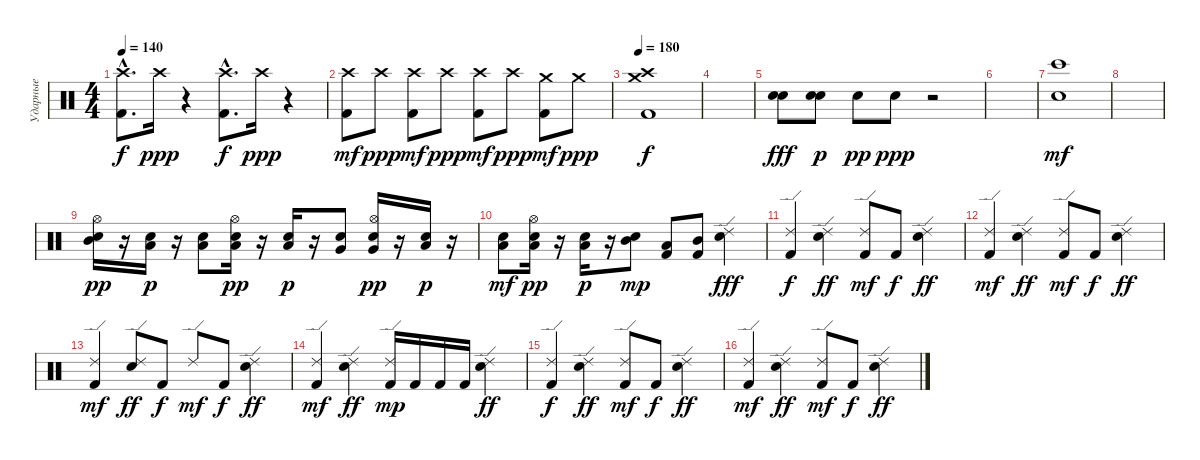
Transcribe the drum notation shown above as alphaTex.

\track ("Ударные" "Ударные") {instrument percussion}
\staff {score}
\articulation defaults
\ts (4 4)
\tempo 140
\clef neutral
\ks c
("Crash high (hit)"{hac} "Kick (hit) 2"{hac}).8{d dy f volume 10} "Crash high (hit)".16{dy ppp volume 0} r.4 ("Crash high (hit)"{hac} "Kick (hit) 2"{hac}).8{d dy f volume 10} "Crash high (hit)".16{dy ppp volume 10} r.4 |
("Crash high (hit)" "Kick (hit) 2").8{dy mf volume 10} "Crash high (hit)".8{dy ppp volume 0} ("Crash high (hit)" "Kick (hit) 2").8{dy mf volume 10} "Crash high (hit)".8{dy ppp volume 0} ("Crash high (hit)" "Kick (hit) 2").8{dy mf volume 10} "Crash high (hit)".8{dy ppp volume 10} ("Crash medium (hit)" "Kick (hit) 2").8{dy mf volume 10} "Crash medium (hit)".8{dy ppp volume 0} |
\tempo 180
("Crash medium (hit)" "Kick (hit) 2" "Crash high (hit)").1{dy f volume 10} |
|
("Electric Snare (hit)" "Snare (hit) 2").8{dy fff} ("Electric Snare (hit)" "Snare (hit) 2").8{dy p} "Snare (hit) 2".8{dy pp} "Snare (hit) 2".8{dy ppp} r.2 |
|
("Hand Clap (hit)" "Bongo High (hit)").1{dy mf balance 14} |
|
("Snare (hit) 2" "Mid Tom (hit)" "Hi-Hat (open)").16{dy pp} r.16 ("Snare (hit) 2" "Low Floor Tom (hit)").16{dy p} r.16 ("Low Tom (hit)" "Electric Snare (hit)").8 ("Snare (hit) 2" "Low Tom (hit)" "Hi-Hat (open)").16{dy pp} r.16 ("Snare (hit) 2" "Low Floor Tom (hit)").16{dy p} r.16 ("Very Low Tom (hit)" "Electric Snare (hit)").8 ("Snare (hit) 2" "Very Low Tom (hit)" "Hi-Hat (open)").16{dy pp} r.16 ("Snare (hit) 2" "Low Floor Tom (hit)").16{dy p} r.16 |
("Electric Snare (hit)" "Low Tom (hit)").8{dy mf} ("Snare (hit) 2" "Low Tom (hit)" "Hi-Hat (open)").16{dy pp} r.16 ("Snare (hit) 2" "Low Floor Tom (hit)").16{dy p} r.16 ("Electric Snare (hit)" "Mid Tom (hit)").8{dy mp} ("Kick (hit) 2" "Low Tom (hit)").8 ("Kick (hit) 2" "Mid Tom (hit)").8 ("Ride (edge) 2" "Electric Snare (hit)").4{dy fff} |
("Ride (edge) 2" "Kick (hit) 2").4{dy f} ("Ride (edge) 2" "Electric Snare (hit)").4{dy ff} ("Ride (edge) 2" "Kick (hit) 2").8{dy mf} "Kick (hit) 2".8{dy f} ("Ride (edge) 2" "Electric Snare (hit)").4{dy ff} |
("Ride (edge) 2" "Kick (hit) 2").4{dy mf} ("Ride (edge) 2" "Electric Snare (hit)").4{dy ff} ("Ride (edge) 2" "Kick (hit) 2").8{dy mf} "Kick (hit) 2".8{dy f} ("Ride (edge) 2" "Electric Snare (hit)").4{dy ff} |
("Ride (edge) 2" "Kick (hit) 2").4{dy mf} ("Ride (edge) 2" "Electric Snare (hit)").8{dy ff} "Kick (hit) 2".8{dy f} "Ride (edge) 2".8{dy mf} "Kick (hit) 2".8{dy f} ("Ride (edge) 2" "Electric Snare (hit)").4{dy ff} |
("Ride (edge) 2" "Kick (hit) 2").4{dy mf} ("Ride (edge) 2" "Electric Snare (hit)").4{dy ff} ("Ride (edge) 2" "Kick (hit) 2").16{dy mp} "Kick (hit) 2".16 "Kick (hit) 2".16 "Kick (hit) 2".16 ("Ride (edge) 2" "Electric Snare (hit)").4{dy ff} |
("Ride (edge) 2" "Kick (hit) 2").4{dy f} ("Ride (edge) 2" "Electric Snare (hit)").4{dy ff} ("Ride (edge) 2" "Kick (hit) 2").8{dy mf} "Kick (hit) 2".8{dy f} ("Ride (edge) 2" "Electric Snare (hit)").4{dy ff} |
("Ride (edge) 2" "Kick (hit) 2").4{dy mf} ("Ride (edge) 2" "Electric Snare (hit)").4{dy ff} ("Ride (edge) 2" "Kick (hit) 2").8{dy mf} "Kick (hit) 2".8{dy f} ("Ride (edge) 2" "Electric Snare (hit)").4{dy ff}
